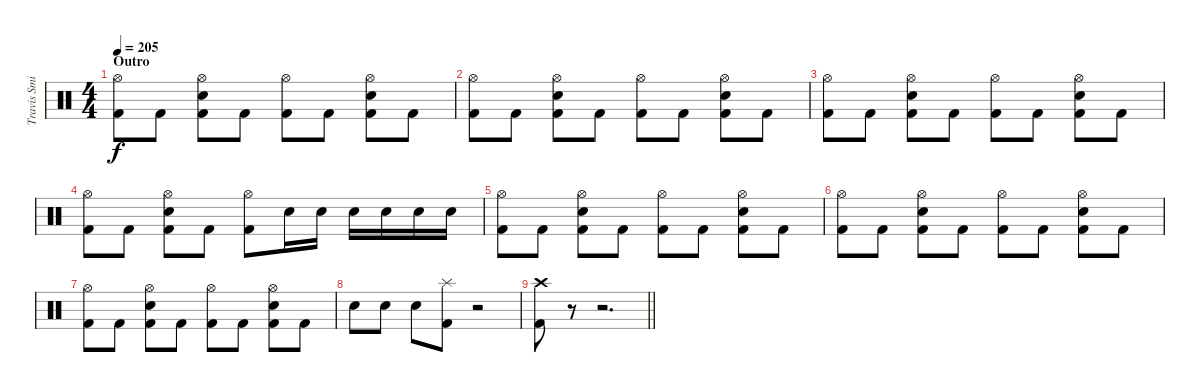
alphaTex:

\track ("Travis Smith" "Travis Smi") {instrument percussion}
\staff {score}
\articulation defaults
\ts (4 4)
\section ("" "Outro")
\tempo 205
\clef neutral
\ks c
("Hi-Hat (open)" "Kick (hit) 2").8{dy f} "Kick (hit) 2".8 ("Hi-Hat (open)" "Snare (hit) 2" "Kick (hit) 2").8 "Kick (hit) 2".8 ("Hi-Hat (open)" "Kick (hit) 2").8 "Kick (hit) 2".8 ("Hi-Hat (open)" "Snare (hit) 2" "Kick (hit) 2").8 "Kick (hit) 2".8 |
("Hi-Hat (open)" "Kick (hit) 2").8 "Kick (hit) 2".8 ("Hi-Hat (open)" "Snare (hit) 2" "Kick (hit) 2").8 "Kick (hit) 2".8 ("Hi-Hat (open)" "Kick (hit) 2").8 "Kick (hit) 2".8 ("Hi-Hat (open)" "Snare (hit) 2" "Kick (hit) 2").8 "Kick (hit) 2".8 |
("Hi-Hat (open)" "Kick (hit) 2").8 "Kick (hit) 2".8 ("Hi-Hat (open)" "Snare (hit) 2" "Kick (hit) 2").8 "Kick (hit) 2".8 ("Hi-Hat (open)" "Kick (hit) 2").8 "Kick (hit) 2".8 ("Hi-Hat (open)" "Snare (hit) 2" "Kick (hit) 2").8 "Kick (hit) 2".8 |
("Hi-Hat (open)" "Kick (hit) 2").8 "Kick (hit) 2".8 ("Hi-Hat (open)" "Snare (hit) 2" "Kick (hit) 2").8 "Kick (hit) 2".8 ("Hi-Hat (open)" "Kick (hit) 2").8 "Snare (hit) 2".16 "Snare (hit) 2".16 "Snare (hit) 2".16 "Snare (hit) 2".16 "Snare (hit) 2".16 "Snare (hit) 2".16 |
("Hi-Hat (open)" "Kick (hit) 2").8 "Kick (hit) 2".8 ("Hi-Hat (open)" "Snare (hit) 2" "Kick (hit) 2").8 "Kick (hit) 2".8 ("Hi-Hat (open)" "Kick (hit) 2").8 "Kick (hit) 2".8 ("Hi-Hat (open)" "Snare (hit) 2" "Kick (hit) 2").8 "Kick (hit) 2".8 |
("Hi-Hat (open)" "Kick (hit) 2").8 "Kick (hit) 2".8 ("Hi-Hat (open)" "Snare (hit) 2" "Kick (hit) 2").8 "Kick (hit) 2".8 ("Hi-Hat (open)" "Kick (hit) 2").8 "Kick (hit) 2".8 ("Hi-Hat (open)" "Snare (hit) 2" "Kick (hit) 2").8 "Kick (hit) 2".8 |
("Hi-Hat (open)" "Kick (hit) 2").8 "Kick (hit) 2".8 ("Hi-Hat (open)" "Snare (hit) 2" "Kick (hit) 2").8 "Kick (hit) 2".8 ("Hi-Hat (open)" "Kick (hit) 2").8 "Kick (hit) 2".8 ("Hi-Hat (open)" "Snare (hit) 2" "Kick (hit) 2").8 "Kick (hit) 2".8 |
"Snare (hit) 2".8 "Snare (hit) 2".8 "Snare (hit) 2".8 ("Splash (hit)" "Kick (hit) 2").8 r.2 |
\barLineRight lightlight
("Crash high (hit)" "Kick (hit) 2").8 r.8 r.2{d}
